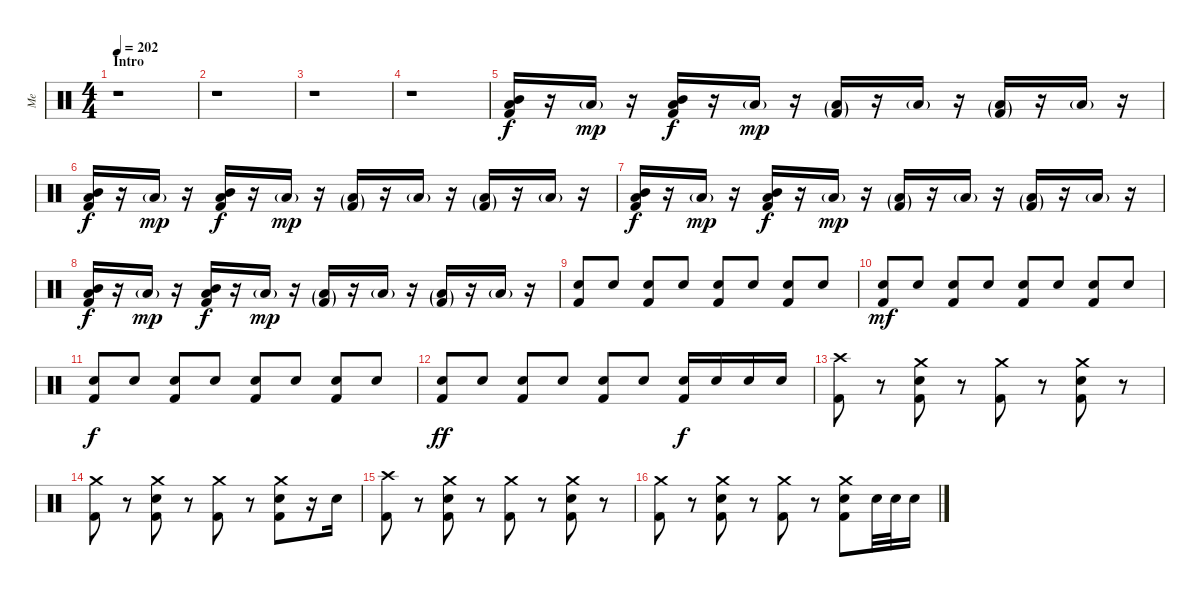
\track ("Me" "Me") {instrument percussion}
\staff {score}
\articulation defaults
\ts (4 4)
\section ("" "Intro")
\tempo 202
\clef neutral
\ks c
r.1{dy f} |
r.1 |
r.1 |
r.1 |
("Mid Tom (hit)" "Low Tom (hit)" "Kick (hit) 2").16 r.16 "Low Tom (hit)"{g}.16{dy mp} r.16 ("Mid Tom (hit)" "Low Tom (hit)" "Kick (hit) 2").16{dy f} r.16 "Low Tom (hit)"{g}.16{dy mp} r.16 ("Low Tom (hit)"{g} "Kick (hit) 2"{g}).16 r.16 "Low Tom (hit)"{g}.16 r.16 ("Low Tom (hit)"{g} "Kick (hit) 2"{g}).16 r.16 "Low Tom (hit)"{g}.16 r.16 |
("Mid Tom (hit)" "Low Tom (hit)" "Kick (hit) 2").16{dy f} r.16 "Low Tom (hit)"{g}.16{dy mp} r.16 ("Mid Tom (hit)" "Low Tom (hit)" "Kick (hit) 2").16{dy f} r.16 "Low Tom (hit)"{g}.16{dy mp} r.16 ("Low Tom (hit)"{g} "Kick (hit) 2"{g}).16 r.16 "Low Tom (hit)"{g}.16 r.16 ("Low Tom (hit)"{g} "Kick (hit) 2"{g}).16 r.16 "Low Tom (hit)"{g}.16 r.16 |
("Mid Tom (hit)" "Low Tom (hit)" "Kick (hit) 2").16{dy f} r.16 "Low Tom (hit)"{g}.16{dy mp} r.16 ("Mid Tom (hit)" "Low Tom (hit)" "Kick (hit) 2").16{dy f} r.16 "Low Tom (hit)"{g}.16{dy mp} r.16 ("Low Tom (hit)"{g} "Kick (hit) 2"{g}).16 r.16 "Low Tom (hit)"{g}.16 r.16 ("Low Tom (hit)"{g} "Kick (hit) 2"{g}).16 r.16 "Low Tom (hit)"{g}.16 r.16 |
("Mid Tom (hit)" "Low Tom (hit)" "Kick (hit) 2").16{dy f} r.16 "Low Tom (hit)"{g}.16{dy mp} r.16 ("Mid Tom (hit)" "Low Tom (hit)" "Kick (hit) 2").16{dy f} r.16 "Low Tom (hit)"{g}.16{dy mp} r.16 ("Low Tom (hit)"{g} "Kick (hit) 2"{g}).16 r.16 "Low Tom (hit)"{g}.16 r.16 ("Low Tom (hit)"{g} "Kick (hit) 2"{g}).16 r.16 "Low Tom (hit)"{g}.16 r.16 |
("Electric Snare (hit)" "Kick (hit) 2").8 "Electric Snare (hit)".8 ("Electric Snare (hit)" "Kick (hit) 2").8 "Electric Snare (hit)".8 ("Electric Snare (hit)" "Kick (hit) 2").8 "Electric Snare (hit)".8 ("Electric Snare (hit)" "Kick (hit) 2").8 "Electric Snare (hit)".8 |
("Electric Snare (hit)" "Kick (hit) 2").8{dy mf} "Electric Snare (hit)".8 ("Electric Snare (hit)" "Kick (hit) 2").8 "Electric Snare (hit)".8 ("Electric Snare (hit)" "Kick (hit) 2").8 "Electric Snare (hit)".8 ("Electric Snare (hit)" "Kick (hit) 2").8 "Electric Snare (hit)".8 |
("Electric Snare (hit)" "Kick (hit) 2").8{dy f} "Electric Snare (hit)".8 ("Electric Snare (hit)" "Kick (hit) 2").8 "Electric Snare (hit)".8 ("Electric Snare (hit)" "Kick (hit) 2").8 "Electric Snare (hit)".8 ("Electric Snare (hit)" "Kick (hit) 2").8 "Electric Snare (hit)".8 |
("Electric Snare (hit)" "Kick (hit) 2").8{dy ff} "Electric Snare (hit)".8 ("Electric Snare (hit)" "Kick (hit) 2").8 "Electric Snare (hit)".8 ("Electric Snare (hit)" "Kick (hit) 2").8 "Electric Snare (hit)".8 ("Electric Snare (hit)" "Kick (hit) 2").16{dy f} "Electric Snare (hit)".16 "Electric Snare (hit)".16 "Electric Snare (hit)".16 |
("Crash high (hit)" "Kick (hit) 2").8 r.8 ("Crash medium (hit)" "Electric Snare (hit)" "Kick (hit) 2").8 r.8 ("Crash medium (hit)" "Kick (hit) 2").8 r.8 ("Crash medium (hit)" "Electric Snare (hit)" "Kick (hit) 2").8 r.8 |
("Crash medium (hit)" "Kick (hit) 2").8 r.8 ("Crash medium (hit)" "Electric Snare (hit)" "Kick (hit) 2").8 r.8 ("Crash medium (hit)" "Kick (hit) 2").8 r.8 ("Crash medium (hit)" "Electric Snare (hit)" "Kick (hit) 2").8 r.16 "Electric Snare (hit)".16 |
("Crash high (hit)" "Kick (hit) 2").8 r.8 ("Crash medium (hit)" "Electric Snare (hit)" "Kick (hit) 2").8 r.8 ("Crash medium (hit)" "Kick (hit) 2").8 r.8 ("Crash medium (hit)" "Electric Snare (hit)" "Kick (hit) 2").8 r.8 |
("Crash medium (hit)" "Kick (hit) 2").8 r.8 ("Crash medium (hit)" "Electric Snare (hit)" "Kick (hit) 2").8 r.8 ("Crash medium (hit)" "Kick (hit) 2").8 r.8 ("Crash medium (hit)" "Electric Snare (hit)" "Kick (hit) 2").8 "Electric Snare (hit)".32 "Electric Snare (hit)".32 "Electric Snare (hit)".16
